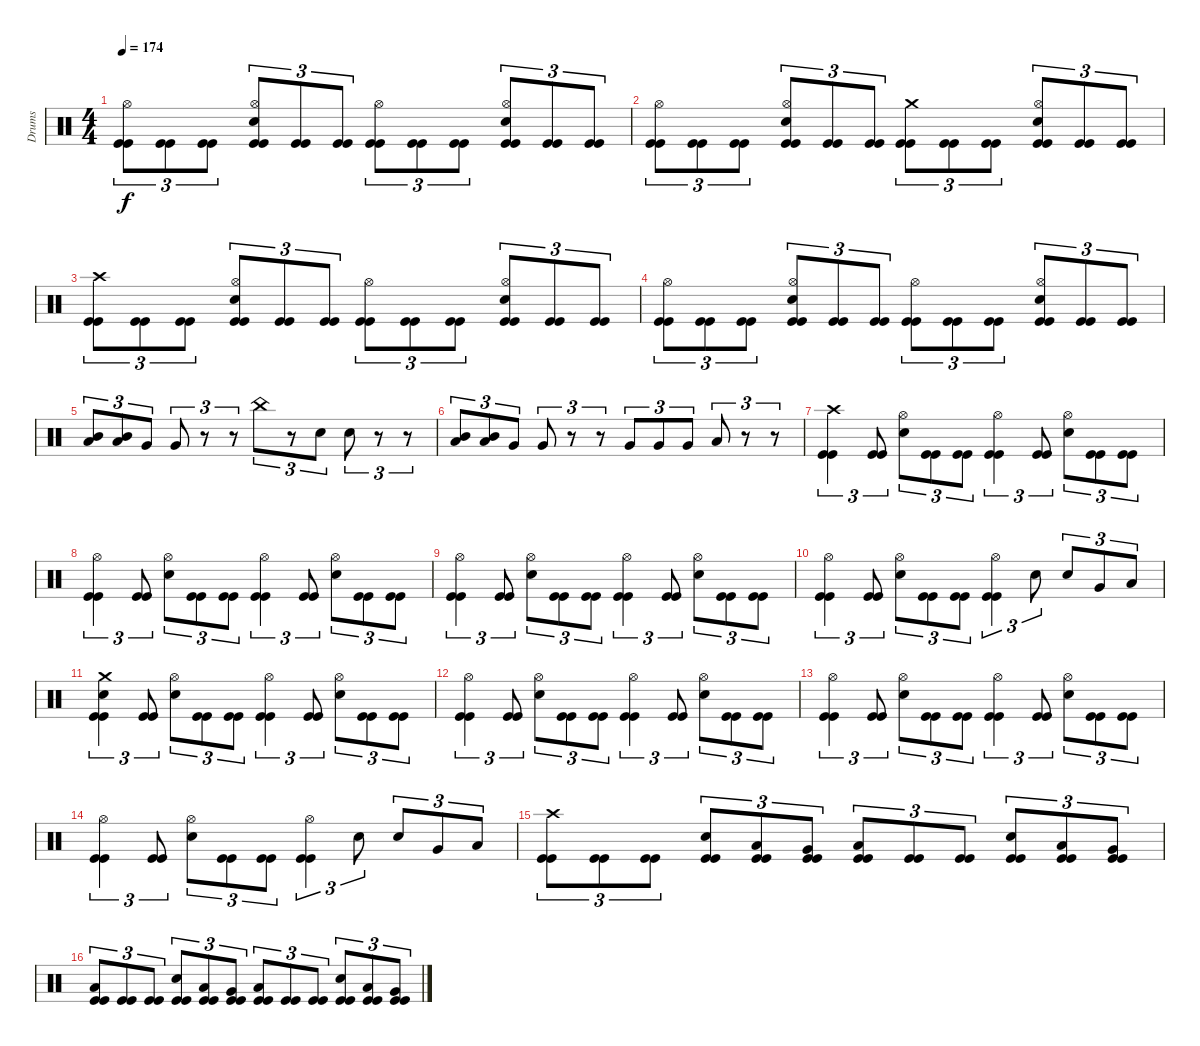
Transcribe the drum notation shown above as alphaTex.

\track ("Drums" "Drums") {instrument percussion}
\staff {score}
\articulation defaults
\ts (4 4)
\tempo 174
\clef neutral
\ks c
("Kick (hit)" "Kick (hit)" "Hi-Hat (open)").8{tu (3 2) dy f} ("Kick (hit)" "Kick (hit)").8{tu (3 2)} ("Kick (hit)" "Kick (hit)").8{tu (3 2)} ("Kick (hit)" "Kick (hit)" "Snare (hit) 2" "Hi-Hat (open)").8{tu (3 2)} ("Kick (hit)" "Kick (hit)").8{tu (3 2)} ("Kick (hit)" "Kick (hit)").8{tu (3 2)} ("Kick (hit)" "Kick (hit)" "Hi-Hat (open)").8{tu (3 2)} ("Kick (hit)" "Kick (hit)").8{tu (3 2)} ("Kick (hit)" "Kick (hit)").8{tu (3 2)} ("Kick (hit)" "Kick (hit)" "Snare (hit) 2" "Hi-Hat (open)").8{tu (3 2)} ("Kick (hit)" "Kick (hit)").8{tu (3 2)} ("Kick (hit)" "Kick (hit)").8{tu (3 2)} |
("Kick (hit)" "Kick (hit)" "Hi-Hat (open)").8{tu (3 2)} ("Kick (hit)" "Kick (hit)").8{tu (3 2)} ("Kick (hit)" "Kick (hit)").8{tu (3 2)} ("Kick (hit)" "Kick (hit)" "Snare (hit) 2" "Hi-Hat (open)").8{tu (3 2)} ("Kick (hit)" "Kick (hit)").8{tu (3 2)} ("Kick (hit)" "Kick (hit)").8{tu (3 2)} ("Kick (hit)" "Kick (hit)" "Crash medium (hit)").8{tu (3 2)} ("Kick (hit)" "Kick (hit)").8{tu (3 2)} ("Kick (hit)" "Kick (hit)").8{tu (3 2)} ("Kick (hit)" "Kick (hit)" "Snare (hit) 2" "Hi-Hat (open)").8{tu (3 2)} ("Kick (hit)" "Kick (hit)").8{tu (3 2)} ("Kick (hit)" "Kick (hit)").8{tu (3 2)} |
("Kick (hit)" "Kick (hit)" "Crash high (hit)").8{tu (3 2)} ("Kick (hit)" "Kick (hit)").8{tu (3 2)} ("Kick (hit)" "Kick (hit)").8{tu (3 2)} ("Kick (hit)" "Kick (hit)" "Snare (hit) 2" "Hi-Hat (open)").8{tu (3 2)} ("Kick (hit)" "Kick (hit)").8{tu (3 2)} ("Kick (hit)" "Kick (hit)").8{tu (3 2)} ("Kick (hit)" "Kick (hit)" "Hi-Hat (open)").8{tu (3 2)} ("Kick (hit)" "Kick (hit)").8{tu (3 2)} ("Kick (hit)" "Kick (hit)").8{tu (3 2)} ("Kick (hit)" "Kick (hit)" "Snare (hit) 2" "Hi-Hat (open)").8{tu (3 2)} ("Kick (hit)" "Kick (hit)").8{tu (3 2)} ("Kick (hit)" "Kick (hit)").8{tu (3 2)} |
("Kick (hit)" "Kick (hit)" "Hi-Hat (open)").8{tu (3 2)} ("Kick (hit)" "Kick (hit)").8{tu (3 2)} ("Kick (hit)" "Kick (hit)").8{tu (3 2)} ("Kick (hit)" "Kick (hit)" "Snare (hit) 2" "Hi-Hat (open)").8{tu (3 2)} ("Kick (hit)" "Kick (hit)").8{tu (3 2)} ("Kick (hit)" "Kick (hit)").8{tu (3 2)} ("Kick (hit)" "Kick (hit)" "Hi-Hat (open)").8{tu (3 2)} ("Kick (hit)" "Kick (hit)").8{tu (3 2)} ("Kick (hit)" "Kick (hit)").8{tu (3 2)} ("Kick (hit)" "Kick (hit)" "Snare (hit) 2" "Hi-Hat (open)").8{tu (3 2)} ("Kick (hit)" "Kick (hit)").8{tu (3 2)} ("Kick (hit)" "Kick (hit)").8{tu (3 2)} |
("Mid Tom (hit)" "Low Tom (hit)").8{tu (3 2)} ("Mid Tom (hit)" "Low Tom (hit)").8{tu (3 2)} "Very Low Tom (hit)".8{tu (3 2)} "Very Low Tom (hit)".8{tu (3 2)} r.8{tu (3 2)} r.8{tu (3 2)} "China (hit)".8{tu (3 2)} r.8{tu (3 2)} "Snare (hit) 2".8{tu (3 2)} "Snare (hit) 2".8{tu (3 2)} r.8{tu (3 2)} r.8{tu (3 2)} |
("Mid Tom (hit)" "Low Tom (hit)").8{tu (3 2)} ("Mid Tom (hit)" "Low Tom (hit)").8{tu (3 2)} "Very Low Tom (hit)".8{tu (3 2)} "Very Low Tom (hit)".8{tu (3 2)} r.8{tu (3 2)} r.8{tu (3 2)} "Very Low Tom (hit)".8{tu (3 2)} "Very Low Tom (hit)".8{tu (3 2)} "Very Low Tom (hit)".8{tu (3 2)} "Low Floor Tom (hit)".8{tu (3 2)} r.8{tu (3 2)} r.8{tu (3 2)} |
("Kick (hit)" "Kick (hit)" "Crash high (hit)").4{tu (3 2)} ("Kick (hit)" "Kick (hit)").8{tu (3 2)} ("Snare (hit) 2" "Hi-Hat (open)").8{tu (3 2)} ("Kick (hit)" "Kick (hit)").8{tu (3 2)} ("Kick (hit)" "Kick (hit)").8{tu (3 2)} ("Kick (hit)" "Kick (hit)" "Hi-Hat (open)").4{tu (3 2)} ("Kick (hit)" "Kick (hit)").8{tu (3 2)} ("Snare (hit) 2" "Hi-Hat (open)").8{tu (3 2)} ("Kick (hit)" "Kick (hit)").8{tu (3 2)} ("Kick (hit)" "Kick (hit)").8{tu (3 2)} |
("Kick (hit)" "Kick (hit)" "Hi-Hat (open)").4{tu (3 2)} ("Kick (hit)" "Kick (hit)").8{tu (3 2)} ("Snare (hit) 2" "Hi-Hat (open)").8{tu (3 2)} ("Kick (hit)" "Kick (hit)").8{tu (3 2)} ("Kick (hit)" "Kick (hit)").8{tu (3 2)} ("Kick (hit)" "Kick (hit)" "Hi-Hat (open)").4{tu (3 2)} ("Kick (hit)" "Kick (hit)").8{tu (3 2)} ("Snare (hit) 2" "Hi-Hat (open)").8{tu (3 2)} ("Kick (hit)" "Kick (hit)").8{tu (3 2)} ("Kick (hit)" "Kick (hit)").8{tu (3 2)} |
("Kick (hit)" "Kick (hit)" "Hi-Hat (open)").4{tu (3 2)} ("Kick (hit)" "Kick (hit)").8{tu (3 2)} ("Snare (hit) 2" "Hi-Hat (open)").8{tu (3 2)} ("Kick (hit)" "Kick (hit)").8{tu (3 2)} ("Kick (hit)" "Kick (hit)").8{tu (3 2)} ("Kick (hit)" "Kick (hit)" "Hi-Hat (open)").4{tu (3 2)} ("Kick (hit)" "Kick (hit)").8{tu (3 2)} ("Snare (hit) 2" "Hi-Hat (open)").8{tu (3 2)} ("Kick (hit)" "Kick (hit)").8{tu (3 2)} ("Kick (hit)" "Kick (hit)").8{tu (3 2)} |
("Kick (hit)" "Kick (hit)" "Hi-Hat (open)").4{tu (3 2)} ("Kick (hit)" "Kick (hit)").8{tu (3 2)} ("Snare (hit) 2" "Hi-Hat (open)").8{tu (3 2)} ("Kick (hit)" "Kick (hit)").8{tu (3 2)} ("Kick (hit)" "Kick (hit)").8{tu (3 2)} ("Kick (hit)" "Kick (hit)" "Hi-Hat (open)").4{tu (3 2)} "Snare (hit) 2".8{tu (3 2)} "Snare (hit) 2".8{tu (3 2)} "Very Low Tom (hit)".8{tu (3 2)} "Low Floor Tom (hit)".8{tu (3 2)} |
("Kick (hit)" "Kick (hit)" "Crash medium (hit)" "Snare (hit) 2").4{tu (3 2)} ("Kick (hit)" "Kick (hit)").8{tu (3 2)} ("Snare (hit) 2" "Hi-Hat (open)").8{tu (3 2)} ("Kick (hit)" "Kick (hit)").8{tu (3 2)} ("Kick (hit)" "Kick (hit)").8{tu (3 2)} ("Kick (hit)" "Kick (hit)" "Hi-Hat (open)").4{tu (3 2)} ("Kick (hit)" "Kick (hit)").8{tu (3 2)} ("Snare (hit) 2" "Hi-Hat (open)").8{tu (3 2)} ("Kick (hit)" "Kick (hit)").8{tu (3 2)} ("Kick (hit)" "Kick (hit)").8{tu (3 2)} |
("Kick (hit)" "Kick (hit)" "Hi-Hat (open)").4{tu (3 2)} ("Kick (hit)" "Kick (hit)").8{tu (3 2)} ("Snare (hit) 2" "Hi-Hat (open)").8{tu (3 2)} ("Kick (hit)" "Kick (hit)").8{tu (3 2)} ("Kick (hit)" "Kick (hit)").8{tu (3 2)} ("Kick (hit)" "Kick (hit)" "Hi-Hat (open)").4{tu (3 2)} ("Kick (hit)" "Kick (hit)").8{tu (3 2)} ("Snare (hit) 2" "Hi-Hat (open)").8{tu (3 2)} ("Kick (hit)" "Kick (hit)").8{tu (3 2)} ("Kick (hit)" "Kick (hit)").8{tu (3 2)} |
("Kick (hit)" "Kick (hit)" "Hi-Hat (open)").4{tu (3 2)} ("Kick (hit)" "Kick (hit)").8{tu (3 2)} ("Snare (hit) 2" "Hi-Hat (open)").8{tu (3 2)} ("Kick (hit)" "Kick (hit)").8{tu (3 2)} ("Kick (hit)" "Kick (hit)").8{tu (3 2)} ("Kick (hit)" "Kick (hit)" "Hi-Hat (open)").4{tu (3 2)} ("Kick (hit)" "Kick (hit)").8{tu (3 2)} ("Snare (hit) 2" "Hi-Hat (open)").8{tu (3 2)} ("Kick (hit)" "Kick (hit)").8{tu (3 2)} ("Kick (hit)" "Kick (hit)").8{tu (3 2)} |
("Kick (hit)" "Kick (hit)" "Hi-Hat (open)").4{tu (3 2)} ("Kick (hit)" "Kick (hit)").8{tu (3 2)} ("Snare (hit) 2" "Hi-Hat (open)").8{tu (3 2)} ("Kick (hit)" "Kick (hit)").8{tu (3 2)} ("Kick (hit)" "Kick (hit)").8{tu (3 2)} ("Kick (hit)" "Kick (hit)" "Hi-Hat (open)").4{tu (3 2)} "Snare (hit) 2".8{tu (3 2)} "Snare (hit) 2".8{tu (3 2)} "Very Low Tom (hit)".8{tu (3 2)} "Low Floor Tom (hit)".8{tu (3 2)} |
("Kick (hit)" "Kick (hit)" "Crash high (hit)").8{tu (3 2)} ("Kick (hit)" "Kick (hit)").8{tu (3 2)} ("Kick (hit)" "Kick (hit)").8{tu (3 2)} ("Kick (hit)" "Kick (hit)" "Snare (hit) 2").8{tu (3 2)} ("Kick (hit)" "Kick (hit)" "Low Tom (hit)").8{tu (3 2)} ("Kick (hit)" "Kick (hit)" "Very Low Tom (hit)").8{tu (3 2)} ("Kick (hit)" "Kick (hit)" "Low Floor Tom (hit)").8{tu (3 2)} ("Kick (hit)" "Kick (hit)").8{tu (3 2)} ("Kick (hit)" "Kick (hit)").8{tu (3 2)} ("Kick (hit)" "Kick (hit)" "Snare (hit) 2").8{tu (3 2)} ("Kick (hit)" "Kick (hit)" "Low Tom (hit)").8{tu (3 2)} ("Kick (hit)" "Kick (hit)" "Very Low Tom (hit)").8{tu (3 2)} |
("Kick (hit)" "Kick (hit)" "Low Floor Tom (hit)").8{tu (3 2)} ("Kick (hit)" "Kick (hit)").8{tu (3 2)} ("Kick (hit)" "Kick (hit)").8{tu (3 2)} ("Kick (hit)" "Kick (hit)" "Snare (hit) 2").8{tu (3 2)} ("Kick (hit)" "Kick (hit)" "Low Tom (hit)").8{tu (3 2)} ("Kick (hit)" "Kick (hit)" "Very Low Tom (hit)").8{tu (3 2)} ("Kick (hit)" "Kick (hit)" "Low Floor Tom (hit)").8{tu (3 2)} ("Kick (hit)" "Kick (hit)").8{tu (3 2)} ("Kick (hit)" "Kick (hit)").8{tu (3 2)} ("Kick (hit)" "Kick (hit)" "Snare (hit) 2").8{tu (3 2)} ("Kick (hit)" "Kick (hit)" "Low Tom (hit)").8{tu (3 2)} ("Kick (hit)" "Kick (hit)" "Very Low Tom (hit)").8{tu (3 2)}
